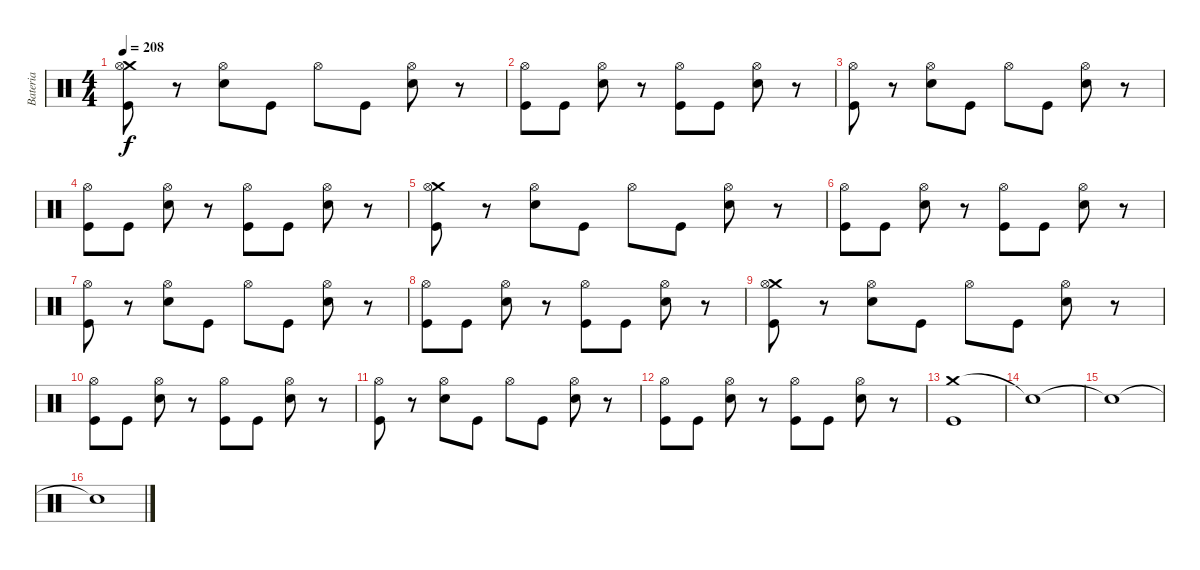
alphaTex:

\track ("Bateria" "Bateria") {instrument percussion}
\staff {score}
\articulation defaults
\ts (4 4)
\tempo 208
\clef neutral
\ks c
("Crash medium (hit)" "Hi-Hat (open)" "Kick (hit)").8{dy f} r.8 ("Hi-Hat (open)" "Electric Snare (hit)").8 "Kick (hit)".8 "Hi-Hat (open)".8 "Kick (hit)".8 ("Hi-Hat (open)" "Electric Snare (hit)").8 r.8 |
("Hi-Hat (open)" "Kick (hit)").8 "Kick (hit)".8 ("Hi-Hat (open)" "Electric Snare (hit)").8 r.8 ("Hi-Hat (open)" "Kick (hit)").8 "Kick (hit)".8 ("Hi-Hat (open)" "Electric Snare (hit)").8 r.8 |
("Hi-Hat (open)" "Kick (hit)").8 r.8 ("Hi-Hat (open)" "Electric Snare (hit)").8 "Kick (hit)".8 "Hi-Hat (open)".8 "Kick (hit)".8 ("Hi-Hat (open)" "Electric Snare (hit)").8 r.8 |
("Hi-Hat (open)" "Kick (hit)").8 "Kick (hit)".8 ("Hi-Hat (open)" "Electric Snare (hit)").8 r.8 ("Hi-Hat (open)" "Kick (hit)").8 "Kick (hit)".8 ("Hi-Hat (open)" "Electric Snare (hit)").8 r.8 |
("Crash medium (hit)" "Hi-Hat (open)" "Kick (hit)").8 r.8 ("Hi-Hat (open)" "Electric Snare (hit)").8 "Kick (hit)".8 "Hi-Hat (open)".8 "Kick (hit)".8 ("Hi-Hat (open)" "Electric Snare (hit)").8 r.8 |
("Hi-Hat (open)" "Kick (hit)").8 "Kick (hit)".8 ("Hi-Hat (open)" "Electric Snare (hit)").8 r.8 ("Hi-Hat (open)" "Kick (hit)").8 "Kick (hit)".8 ("Hi-Hat (open)" "Electric Snare (hit)").8 r.8 |
("Hi-Hat (open)" "Kick (hit)").8 r.8 ("Hi-Hat (open)" "Electric Snare (hit)").8 "Kick (hit)".8 "Hi-Hat (open)".8 "Kick (hit)".8 ("Hi-Hat (open)" "Electric Snare (hit)").8 r.8 |
("Hi-Hat (open)" "Kick (hit)").8 "Kick (hit)".8 ("Hi-Hat (open)" "Electric Snare (hit)").8 r.8 ("Hi-Hat (open)" "Kick (hit)").8 "Kick (hit)".8 ("Hi-Hat (open)" "Electric Snare (hit)").8 r.8 |
("Crash medium (hit)" "Hi-Hat (open)" "Kick (hit)").8 r.8 ("Hi-Hat (open)" "Electric Snare (hit)").8 "Kick (hit)".8 "Hi-Hat (open)".8 "Kick (hit)".8 ("Hi-Hat (open)" "Electric Snare (hit)").8 r.8 |
("Hi-Hat (open)" "Kick (hit)").8 "Kick (hit)".8 ("Hi-Hat (open)" "Electric Snare (hit)").8 r.8 ("Hi-Hat (open)" "Kick (hit)").8 "Kick (hit)".8 ("Hi-Hat (open)" "Electric Snare (hit)").8 r.8 |
("Hi-Hat (open)" "Kick (hit)").8 r.8 ("Hi-Hat (open)" "Electric Snare (hit)").8 "Kick (hit)".8 "Hi-Hat (open)".8 "Kick (hit)".8 ("Hi-Hat (open)" "Electric Snare (hit)").8 r.8 |
("Hi-Hat (open)" "Kick (hit)").8 "Kick (hit)".8 ("Hi-Hat (open)" "Electric Snare (hit)").8 r.8 ("Hi-Hat (open)" "Kick (hit)").8 "Kick (hit)".8 ("Hi-Hat (open)" "Electric Snare (hit)").8 r.8 |
("Crash medium (hit)" "Kick (hit)").1 |
"Snare (hit)"{t}.1 |
"Snare (hit)"{t}.1 |
"Snare (hit)"{t}.1
